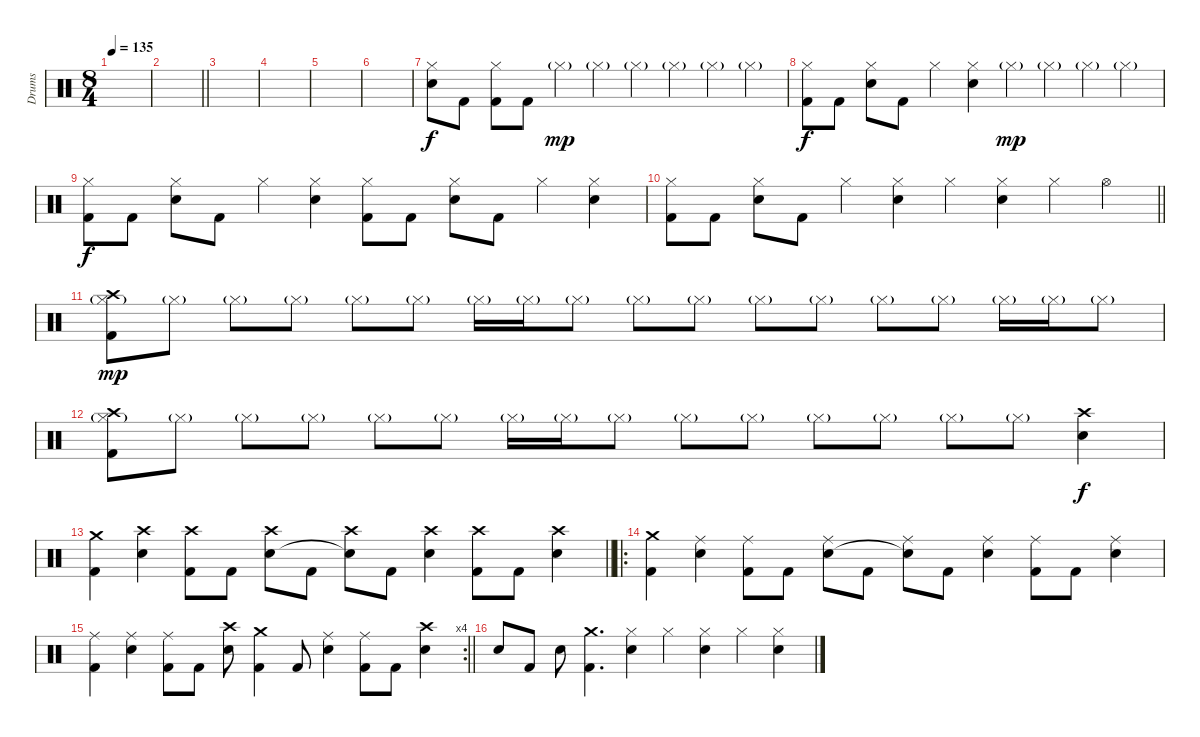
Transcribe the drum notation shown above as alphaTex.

\track ("Drums" "Drums") {instrument percussion}
\staff {score}
\articulation defaults
\ts (8 4)
\tempo 135
\clef neutral
\ks c
|
\barLineRight lightlight
|
|
|
|
|
("Hi-Hat (closed)" "Electric Snare (hit)").8 "Kick (hit) 2".8 ("Hi-Hat (closed)" "Kick (hit) 2").8 "Kick (hit) 2".8 "Hi-Hat (closed)"{g}.4{dy mp} "Hi-Hat (closed)"{g}.4 "Hi-Hat (closed)"{g}.4 "Hi-Hat (closed)"{g}.4 "Hi-Hat (closed)"{g}.4 "Hi-Hat (closed)"{g}.4 |
("Hi-Hat (closed)" "Kick (hit) 2").8{dy f} "Kick (hit) 2".8 ("Hi-Hat (closed)" "Electric Snare (hit)").8 "Kick (hit) 2".8 "Hi-Hat (closed)".4 ("Hi-Hat (closed)" "Electric Snare (hit)").4 "Hi-Hat (closed)"{g}.4{dy mp} "Hi-Hat (closed)"{g}.4 "Hi-Hat (closed)"{g}.4 "Hi-Hat (closed)"{g}.4 |
("Hi-Hat (closed)" "Kick (hit) 2").8{dy f} "Kick (hit) 2".8 ("Hi-Hat (closed)" "Electric Snare (hit)").8 "Kick (hit) 2".8 "Hi-Hat (closed)".4 ("Hi-Hat (closed)" "Electric Snare (hit)").4 ("Hi-Hat (closed)" "Kick (hit) 2").8 "Kick (hit) 2".8 ("Hi-Hat (closed)" "Electric Snare (hit)").8 "Kick (hit) 2".8 "Hi-Hat (closed)".4 ("Hi-Hat (closed)" "Electric Snare (hit)").4 |
\barLineRight lightlight
("Hi-Hat (closed)" "Kick (hit) 2").8 "Kick (hit) 2".8 ("Hi-Hat (closed)" "Electric Snare (hit)").8 "Kick (hit) 2".8 "Hi-Hat (closed)".4 ("Hi-Hat (closed)" "Electric Snare (hit)").4 "Hi-Hat (closed)".4 ("Hi-Hat (closed)" "Electric Snare (hit)").4 "Hi-Hat (closed)".4 "Hi-Hat (open)".4 |
("Crash high (hit)" "Hi-Hat (closed)"{g} "Kick (hit) 2").8{dy mp} "Hi-Hat (closed)"{g}.8 "Hi-Hat (closed)"{g}.8 "Hi-Hat (closed)"{g}.8 "Hi-Hat (closed)"{g}.8 "Hi-Hat (closed)"{g}.8 "Hi-Hat (closed)"{g}.16 "Hi-Hat (closed)"{g}.16 "Hi-Hat (closed)"{g}.8 "Hi-Hat (closed)"{g}.8 "Hi-Hat (closed)"{g}.8 "Hi-Hat (closed)"{g}.8 "Hi-Hat (closed)"{g}.8 "Hi-Hat (closed)"{g}.8 "Hi-Hat (closed)"{g}.8 "Hi-Hat (closed)"{g}.16 "Hi-Hat (closed)"{g}.16 "Hi-Hat (closed)"{g}.8 |
("Crash high (hit)" "Hi-Hat (closed)"{g} "Kick (hit) 2").8 "Hi-Hat (closed)"{g}.8 "Hi-Hat (closed)"{g}.8 "Hi-Hat (closed)"{g}.8 "Hi-Hat (closed)"{g}.8 "Hi-Hat (closed)"{g}.8 "Hi-Hat (closed)"{g}.16 "Hi-Hat (closed)"{g}.16 "Hi-Hat (closed)"{g}.8 "Hi-Hat (closed)"{g}.8 "Hi-Hat (closed)"{g}.8 "Hi-Hat (closed)"{g}.8 "Hi-Hat (closed)"{g}.8 "Hi-Hat (closed)"{g}.8 "Hi-Hat (closed)"{g}.8 ("Crash high (hit)" "Electric Snare (hit)").4{dy f} |
\barLineRight lightlight
("Crash medium (hit)" "Kick (hit) 2").4 ("Crash high (hit)" "Electric Snare (hit)").4 ("Crash high (hit)" "Kick (hit) 2").8 "Kick (hit) 2".8 ("Crash high (hit)" "Electric Snare (hit)").8 "Kick (hit) 2".8 ("Crash high (hit)" "Snare (hit)"{t}).8 "Kick (hit) 2".8 ("Crash high (hit)" "Electric Snare (hit)").4 ("Crash high (hit)" "Kick (hit) 2").8 "Kick (hit) 2".8 ("Crash high (hit)" "Electric Snare (hit)").4 |
\ro
("Crash medium (hit)" "Kick (hit) 2").4 ("Ride (middle)" "Electric Snare (hit)").4 ("Ride (middle)" "Kick (hit) 2").8 "Kick (hit) 2".8 ("Ride (middle)" "Electric Snare (hit)").8 "Kick (hit) 2".8 ("Ride (middle)" "Snare (hit)"{t}).8 "Kick (hit) 2".8 ("Ride (middle)" "Electric Snare (hit)").4 ("Ride (middle)" "Kick (hit) 2").8 "Kick (hit) 2".8 ("Ride (middle)" "Electric Snare (hit)").4 |
\rc 4
\barLineRight lightlight
("Ride (middle)" "Kick (hit) 2").4 ("Ride (middle)" "Electric Snare (hit)").4 ("Ride (middle)" "Kick (hit) 2").8 "Kick (hit) 2".8 ("Crash high (hit)" "Electric Snare (hit)").8 ("Crash medium (hit)" "Kick (hit) 2").4 "Kick (hit) 2".8 ("Ride (middle)" "Electric Snare (hit)").4 ("Ride (middle)" "Kick (hit) 2").8 "Kick (hit) 2".8 ("Crash high (hit)" "Electric Snare (hit)").4 |
"Electric Snare (hit)".8 "Kick (hit) 2".8 "Electric Snare (hit)".8 ("Crash medium (hit)" "Kick (hit) 2").4{d} ("Hi-Hat (closed)" "Electric Snare (hit)").4 "Hi-Hat (closed)".4 ("Hi-Hat (closed)" "Electric Snare (hit)").4 "Hi-Hat (closed)".4 ("Hi-Hat (closed)" "Electric Snare (hit)").4
